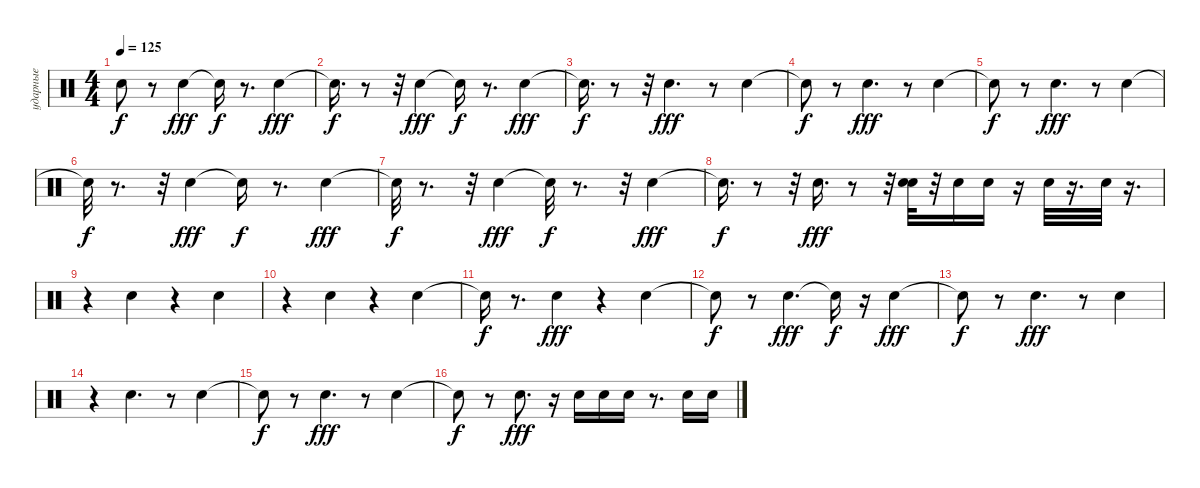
\track ("ударные" "ударные") {instrument percussion}
\staff {score}
\articulation defaults
\ts (4 4)
\tempo 125
\clef neutral
\ks c "Snare (hit)"{t}.8{dy f}
r.8 "Snare (hit) 2".4{dy fff} "Snare (hit)"{t}.16{dy f} r.8{d} "Snare (hit) 2".4{dy fff} |
"Snare (hit)"{t}.16{d dy f} r.8 r.32 "Snare (hit) 2".4{dy fff} "Snare (hit)"{t}.16{dy f} r.8{d} "Snare (hit) 2".4{dy fff} |
"Snare (hit)"{t}.16{d dy f} r.8 r.32 "Snare (hit) 2".4{d dy fff} r.8 "Snare (hit) 2".4 |
"Snare (hit)"{t}.8{dy f} r.8 "Snare (hit) 2".4{d dy fff} r.8 "Snare (hit) 2".4 |
"Snare (hit)"{t}.8{dy f} r.8 "Snare (hit) 2".4{d dy fff} r.8 "Snare (hit) 2".4 |
"Snare (hit)"{t}.32{dy f} r.8{d} r.32 "Snare (hit) 2".4{dy fff} "Snare (hit)"{t}.16{dy f} r.8{d} "Snare (hit) 2".4{dy fff} |
"Snare (hit)"{t}.32{dy f} r.8{d} r.32 "Snare (hit) 2".4{dy fff} "Snare (hit)"{t}.32{dy f} r.8{d} r.32 "Snare (hit) 2".4{dy fff} |
"Snare (hit)"{t}.16{d dy f} r.8 r.32 "Snare (hit) 2".16{d dy fff} r.8 r.32 ("Snare (hit) 2" "Snare (hit) 2").32 r.32 "Snare (hit) 2".16 "Snare (hit) 2".16 r.16 "Snare (hit) 2".32 r.16{d} "Snare (hit) 2".32 r.16{d} |
r.4 "Snare (hit) 2".4 r.4 "Snare (hit) 2".4 |
r.4 "Snare (hit) 2".4 r.4 "Snare (hit) 2".4 |
"Snare (hit)"{t}.16{dy f} r.8{d} "Snare (hit) 2".4{dy fff} r.4 "Snare (hit) 2".4 |
"Snare (hit)"{t}.8{dy f} r.8 "Snare (hit) 2".4{d dy fff} "Snare (hit)"{t}.16{dy f} r.16 "Snare (hit) 2".4{dy fff} |
"Snare (hit)"{t}.8{dy f} r.8 "Snare (hit) 2".4{d dy fff} r.8 "Snare (hit) 2".4 |
r.4 "Snare (hit) 2".4{d} r.8 "Snare (hit) 2".4 |
"Snare (hit)"{t}.8{dy f} r.8 "Snare (hit) 2".4{d dy fff} r.8 "Snare (hit) 2".4 |
"Snare (hit)"{t}.8{dy f} r.8 "Snare (hit) 2".8{d dy fff} r.16 "Snare (hit) 2".16 "Snare (hit) 2".16 "Snare (hit) 2".16 r.8{d} "Snare (hit) 2".16 "Snare (hit) 2".16
